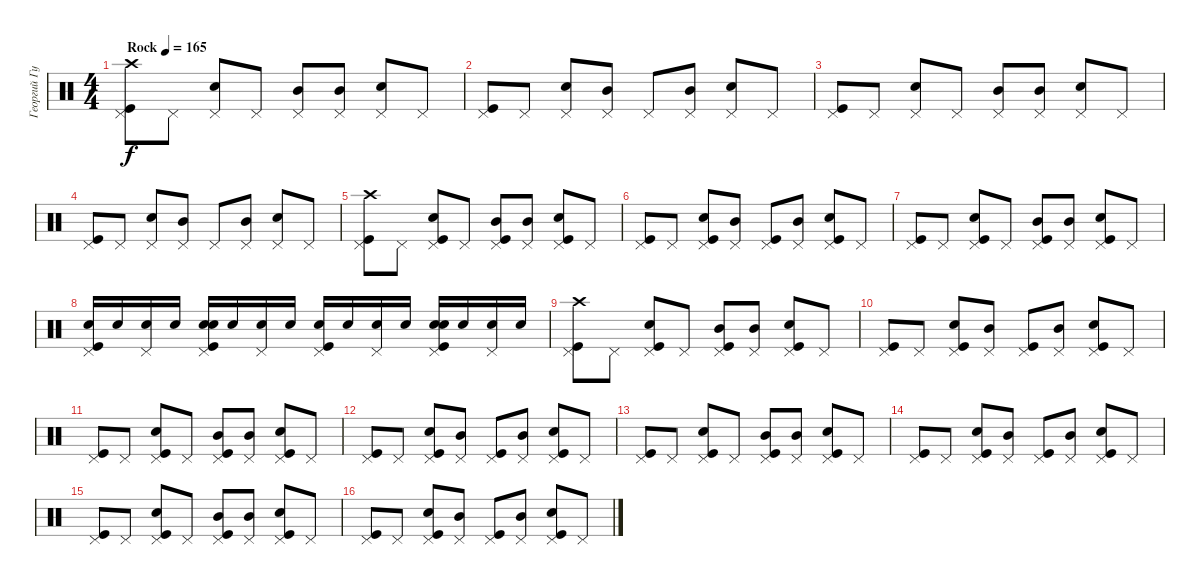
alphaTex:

\track ("Георгий Гурьянов" "Георгий Гу") {instrument percussion}
\staff {score}
\articulation defaults
\ts (4 4)
\tempo (165 "Rock")
\clef neutral
\ks c
("Pedal Hi-Hat (hit)" "Kick (hit)" "Crash high (hit)").8{dy f} "Pedal Hi-Hat (hit)".8 ("Pedal Hi-Hat (hit)" "Snare (hit) 2").8 "Pedal Hi-Hat (hit)".8 ("Pedal Hi-Hat (hit)" "Mid Tom (hit)").8 ("Pedal Hi-Hat (hit)" "Mid Tom (hit)").8 ("Pedal Hi-Hat (hit)" "Snare (hit) 2").8 "Pedal Hi-Hat (hit)".8 |
("Pedal Hi-Hat (hit)" "Kick (hit)").8 "Pedal Hi-Hat (hit)".8 ("Pedal Hi-Hat (hit)" "Snare (hit) 2").8 ("Pedal Hi-Hat (hit)" "Mid Tom (hit)").8 "Pedal Hi-Hat (hit)".8 ("Pedal Hi-Hat (hit)" "Mid Tom (hit)").8 ("Pedal Hi-Hat (hit)" "Snare (hit) 2").8 "Pedal Hi-Hat (hit)".8 |
("Pedal Hi-Hat (hit)" "Kick (hit)").8 "Pedal Hi-Hat (hit)".8 ("Pedal Hi-Hat (hit)" "Snare (hit) 2").8 "Pedal Hi-Hat (hit)".8 ("Pedal Hi-Hat (hit)" "Mid Tom (hit)").8 ("Pedal Hi-Hat (hit)" "Mid Tom (hit)").8 ("Pedal Hi-Hat (hit)" "Snare (hit) 2").8 "Pedal Hi-Hat (hit)".8 |
("Pedal Hi-Hat (hit)" "Kick (hit)").8 "Pedal Hi-Hat (hit)".8 ("Pedal Hi-Hat (hit)" "Snare (hit) 2").8 ("Pedal Hi-Hat (hit)" "Mid Tom (hit)").8 "Pedal Hi-Hat (hit)".8 ("Pedal Hi-Hat (hit)" "Mid Tom (hit)").8 ("Pedal Hi-Hat (hit)" "Snare (hit) 2").8 "Pedal Hi-Hat (hit)".8 |
("Pedal Hi-Hat (hit)" "Kick (hit)" "Crash high (hit)").8 "Pedal Hi-Hat (hit)".8 ("Pedal Hi-Hat (hit)" "Kick (hit)" "Snare (hit) 2").8 "Pedal Hi-Hat (hit)".8 ("Pedal Hi-Hat (hit)" "Kick (hit)" "Mid Tom (hit)").8 ("Pedal Hi-Hat (hit)" "Mid Tom (hit)").8 ("Pedal Hi-Hat (hit)" "Kick (hit)" "Snare (hit) 2").8 "Pedal Hi-Hat (hit)".8 |
("Pedal Hi-Hat (hit)" "Kick (hit)").8 "Pedal Hi-Hat (hit)".8 ("Pedal Hi-Hat (hit)" "Kick (hit)" "Snare (hit) 2").8 ("Pedal Hi-Hat (hit)" "Mid Tom (hit)").8 ("Pedal Hi-Hat (hit)" "Kick (hit)").8 ("Pedal Hi-Hat (hit)" "Mid Tom (hit)").8 ("Pedal Hi-Hat (hit)" "Kick (hit)" "Snare (hit) 2").8 "Pedal Hi-Hat (hit)".8 |
("Pedal Hi-Hat (hit)" "Kick (hit)").8 "Pedal Hi-Hat (hit)".8 ("Pedal Hi-Hat (hit)" "Kick (hit)" "Snare (hit) 2").8 "Pedal Hi-Hat (hit)".8 ("Pedal Hi-Hat (hit)" "Kick (hit)" "Mid Tom (hit)").8 ("Pedal Hi-Hat (hit)" "Mid Tom (hit)").8 ("Pedal Hi-Hat (hit)" "Kick (hit)" "Snare (hit) 2").8 "Pedal Hi-Hat (hit)".8 |
("Electric Snare (hit)" "Kick (hit)" "Pedal Hi-Hat (hit)").16 "Electric Snare (hit)".16 ("Electric Snare (hit)" "Pedal Hi-Hat (hit)").16 "Electric Snare (hit)".16 ("Electric Snare (hit)" "Kick (hit)" "Pedal Hi-Hat (hit)" "Snare (hit) 2").16 "Electric Snare (hit)".16 ("Electric Snare (hit)" "Pedal Hi-Hat (hit)").16 "Electric Snare (hit)".16 ("Electric Snare (hit)" "Kick (hit)" "Pedal Hi-Hat (hit)").16 "Electric Snare (hit)".16 ("Electric Snare (hit)" "Pedal Hi-Hat (hit)").16 "Electric Snare (hit)".16 ("Electric Snare (hit)" "Kick (hit)" "Pedal Hi-Hat (hit)" "Snare (hit) 2").16 "Electric Snare (hit)".16 ("Electric Snare (hit)" "Pedal Hi-Hat (hit)").16 "Electric Snare (hit)".16 |
("Pedal Hi-Hat (hit)" "Kick (hit)" "Crash high (hit)").8 "Pedal Hi-Hat (hit)".8 ("Pedal Hi-Hat (hit)" "Kick (hit)" "Snare (hit) 2").8 "Pedal Hi-Hat (hit)".8 ("Pedal Hi-Hat (hit)" "Kick (hit)" "Mid Tom (hit)").8 ("Pedal Hi-Hat (hit)" "Mid Tom (hit)").8 ("Pedal Hi-Hat (hit)" "Kick (hit)" "Snare (hit) 2").8 "Pedal Hi-Hat (hit)".8 |
("Pedal Hi-Hat (hit)" "Kick (hit)").8 "Pedal Hi-Hat (hit)".8 ("Pedal Hi-Hat (hit)" "Kick (hit)" "Snare (hit) 2").8 ("Pedal Hi-Hat (hit)" "Mid Tom (hit)").8 ("Pedal Hi-Hat (hit)" "Kick (hit)").8 ("Pedal Hi-Hat (hit)" "Mid Tom (hit)").8 ("Pedal Hi-Hat (hit)" "Kick (hit)" "Snare (hit) 2").8 "Pedal Hi-Hat (hit)".8 |
("Pedal Hi-Hat (hit)" "Kick (hit)").8 "Pedal Hi-Hat (hit)".8 ("Pedal Hi-Hat (hit)" "Kick (hit)" "Snare (hit) 2").8 "Pedal Hi-Hat (hit)".8 ("Pedal Hi-Hat (hit)" "Kick (hit)" "Mid Tom (hit)").8 ("Pedal Hi-Hat (hit)" "Mid Tom (hit)").8 ("Pedal Hi-Hat (hit)" "Kick (hit)" "Snare (hit) 2").8 "Pedal Hi-Hat (hit)".8 |
("Pedal Hi-Hat (hit)" "Kick (hit)").8 "Pedal Hi-Hat (hit)".8 ("Pedal Hi-Hat (hit)" "Kick (hit)" "Snare (hit) 2").8 ("Pedal Hi-Hat (hit)" "Mid Tom (hit)").8 ("Pedal Hi-Hat (hit)" "Kick (hit)").8 ("Pedal Hi-Hat (hit)" "Mid Tom (hit)").8 ("Pedal Hi-Hat (hit)" "Kick (hit)" "Snare (hit) 2").8 "Pedal Hi-Hat (hit)".8 |
("Pedal Hi-Hat (hit)" "Kick (hit)").8 "Pedal Hi-Hat (hit)".8 ("Pedal Hi-Hat (hit)" "Kick (hit)" "Snare (hit) 2").8 "Pedal Hi-Hat (hit)".8 ("Pedal Hi-Hat (hit)" "Kick (hit)" "Mid Tom (hit)").8 ("Pedal Hi-Hat (hit)" "Mid Tom (hit)").8 ("Pedal Hi-Hat (hit)" "Kick (hit)" "Snare (hit) 2").8 "Pedal Hi-Hat (hit)".8 |
("Pedal Hi-Hat (hit)" "Kick (hit)").8 "Pedal Hi-Hat (hit)".8 ("Pedal Hi-Hat (hit)" "Kick (hit)" "Snare (hit) 2").8 ("Pedal Hi-Hat (hit)" "Mid Tom (hit)").8 ("Pedal Hi-Hat (hit)" "Kick (hit)").8 ("Pedal Hi-Hat (hit)" "Mid Tom (hit)").8 ("Pedal Hi-Hat (hit)" "Kick (hit)" "Snare (hit) 2").8 "Pedal Hi-Hat (hit)".8 |
("Pedal Hi-Hat (hit)" "Kick (hit)").8 "Pedal Hi-Hat (hit)".8 ("Pedal Hi-Hat (hit)" "Kick (hit)" "Snare (hit) 2").8 "Pedal Hi-Hat (hit)".8 ("Pedal Hi-Hat (hit)" "Kick (hit)" "Mid Tom (hit)").8 ("Pedal Hi-Hat (hit)" "Mid Tom (hit)").8 ("Pedal Hi-Hat (hit)" "Kick (hit)" "Snare (hit) 2").8 "Pedal Hi-Hat (hit)".8 |
("Pedal Hi-Hat (hit)" "Kick (hit)").8 "Pedal Hi-Hat (hit)".8 ("Pedal Hi-Hat (hit)" "Kick (hit)" "Snare (hit) 2").8 ("Pedal Hi-Hat (hit)" "Mid Tom (hit)").8 ("Pedal Hi-Hat (hit)" "Kick (hit)").8 ("Pedal Hi-Hat (hit)" "Mid Tom (hit)").8 ("Pedal Hi-Hat (hit)" "Kick (hit)" "Snare (hit) 2").8 "Pedal Hi-Hat (hit)".8
